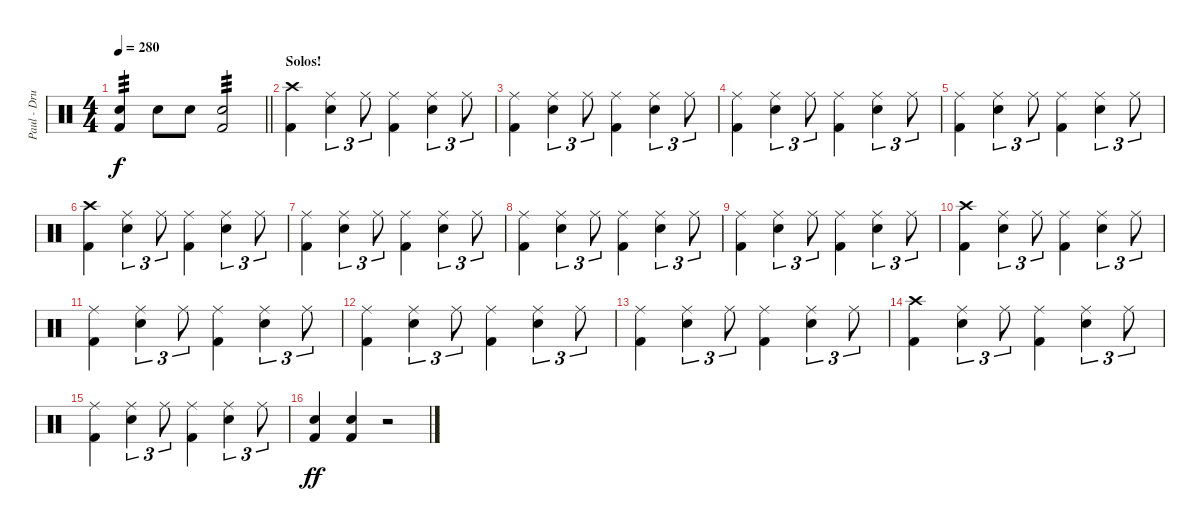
\track ("Paul - Drums" "Paul - Dru") {instrument percussion}
\staff {score}
\articulation defaults
\ts (4 4)
\tempo 280
\clef neutral
\barLineRight lightlight
\ks c
("Electric Snare (hit)" "Kick (hit) 2").4{tp 3 dy f} "Electric Snare (hit)".8 "Electric Snare (hit)".8 ("Electric Snare (hit)" "Kick (hit) 2").2{tp 3} |
\section ("" "Solos!")
("Crash high (hit)" "Kick (hit) 2").4 ("Ride (middle)" "Electric Snare (hit)").4{tu (3 2)} "Ride (middle)".8{tu (3 2)} ("Ride (middle)" "Kick (hit) 2").4 ("Ride (middle)" "Electric Snare (hit)").4{tu (3 2)} "Ride (middle)".8{tu (3 2)} |
("Ride (middle)" "Kick (hit) 2").4 ("Ride (middle)" "Electric Snare (hit)").4{tu (3 2)} "Ride (middle)".8{tu (3 2)} ("Ride (middle)" "Kick (hit) 2").4 ("Ride (middle)" "Electric Snare (hit)").4{tu (3 2)} "Ride (middle)".8{tu (3 2)} |
("Ride (middle)" "Kick (hit) 2").4 ("Ride (middle)" "Electric Snare (hit)").4{tu (3 2)} "Ride (middle)".8{tu (3 2)} ("Ride (middle)" "Kick (hit) 2").4 ("Ride (middle)" "Electric Snare (hit)").4{tu (3 2)} "Ride (middle)".8{tu (3 2)} |
("Ride (middle)" "Kick (hit) 2").4 ("Ride (middle)" "Electric Snare (hit)").4{tu (3 2)} "Ride (middle)".8{tu (3 2)} ("Ride (middle)" "Kick (hit) 2").4 ("Ride (middle)" "Electric Snare (hit)").4{tu (3 2)} "Ride (middle)".8{tu (3 2)} |
("Crash high (hit)" "Kick (hit) 2").4 ("Ride (middle)" "Electric Snare (hit)").4{tu (3 2)} "Ride (middle)".8{tu (3 2)} ("Ride (middle)" "Kick (hit) 2").4 ("Ride (middle)" "Electric Snare (hit)").4{tu (3 2)} "Ride (middle)".8{tu (3 2)} |
("Ride (middle)" "Kick (hit) 2").4 ("Ride (middle)" "Electric Snare (hit)").4{tu (3 2)} "Ride (middle)".8{tu (3 2)} ("Ride (middle)" "Kick (hit) 2").4 ("Ride (middle)" "Electric Snare (hit)").4{tu (3 2)} "Ride (middle)".8{tu (3 2)} |
("Ride (middle)" "Kick (hit) 2").4 ("Ride (middle)" "Electric Snare (hit)").4{tu (3 2)} "Ride (middle)".8{tu (3 2)} ("Ride (middle)" "Kick (hit) 2").4 ("Ride (middle)" "Electric Snare (hit)").4{tu (3 2)} "Ride (middle)".8{tu (3 2)} |
("Ride (middle)" "Kick (hit) 2").4 ("Ride (middle)" "Electric Snare (hit)").4{tu (3 2)} "Ride (middle)".8{tu (3 2)} ("Ride (middle)" "Kick (hit) 2").4 ("Ride (middle)" "Electric Snare (hit)").4{tu (3 2)} "Ride (middle)".8{tu (3 2)} |
("Crash high (hit)" "Kick (hit) 2").4 ("Ride (middle)" "Electric Snare (hit)").4{tu (3 2)} "Ride (middle)".8{tu (3 2)} ("Ride (middle)" "Kick (hit) 2").4 ("Ride (middle)" "Electric Snare (hit)").4{tu (3 2)} "Ride (middle)".8{tu (3 2)} |
("Ride (middle)" "Kick (hit) 2").4 ("Ride (middle)" "Electric Snare (hit)").4{tu (3 2)} "Ride (middle)".8{tu (3 2)} ("Ride (middle)" "Kick (hit) 2").4 ("Ride (middle)" "Electric Snare (hit)").4{tu (3 2)} "Ride (middle)".8{tu (3 2)} |
("Ride (middle)" "Kick (hit) 2").4 ("Ride (middle)" "Electric Snare (hit)").4{tu (3 2)} "Ride (middle)".8{tu (3 2)} ("Ride (middle)" "Kick (hit) 2").4 ("Ride (middle)" "Electric Snare (hit)").4{tu (3 2)} "Ride (middle)".8{tu (3 2)} |
("Ride (middle)" "Kick (hit) 2").4 ("Ride (middle)" "Electric Snare (hit)").4{tu (3 2)} "Ride (middle)".8{tu (3 2)} ("Ride (middle)" "Kick (hit) 2").4 ("Ride (middle)" "Electric Snare (hit)").4{tu (3 2)} "Ride (middle)".8{tu (3 2)} |
("Crash high (hit)" "Kick (hit) 2").4 ("Ride (middle)" "Electric Snare (hit)").4{tu (3 2)} "Ride (middle)".8{tu (3 2)} ("Ride (middle)" "Kick (hit) 2").4 ("Ride (middle)" "Electric Snare (hit)").4{tu (3 2)} "Ride (middle)".8{tu (3 2)} |
("Ride (middle)" "Kick (hit) 2").4 ("Ride (middle)" "Electric Snare (hit)").4{tu (3 2)} "Ride (middle)".8{tu (3 2)} ("Ride (middle)" "Kick (hit) 2").4 ("Ride (middle)" "Electric Snare (hit)").4{tu (3 2)} "Ride (middle)".8{tu (3 2)} |
("Electric Snare (hit)" "Kick (hit) 2").4{dy ff} ("Electric Snare (hit)" "Kick (hit) 2").4 r.2
